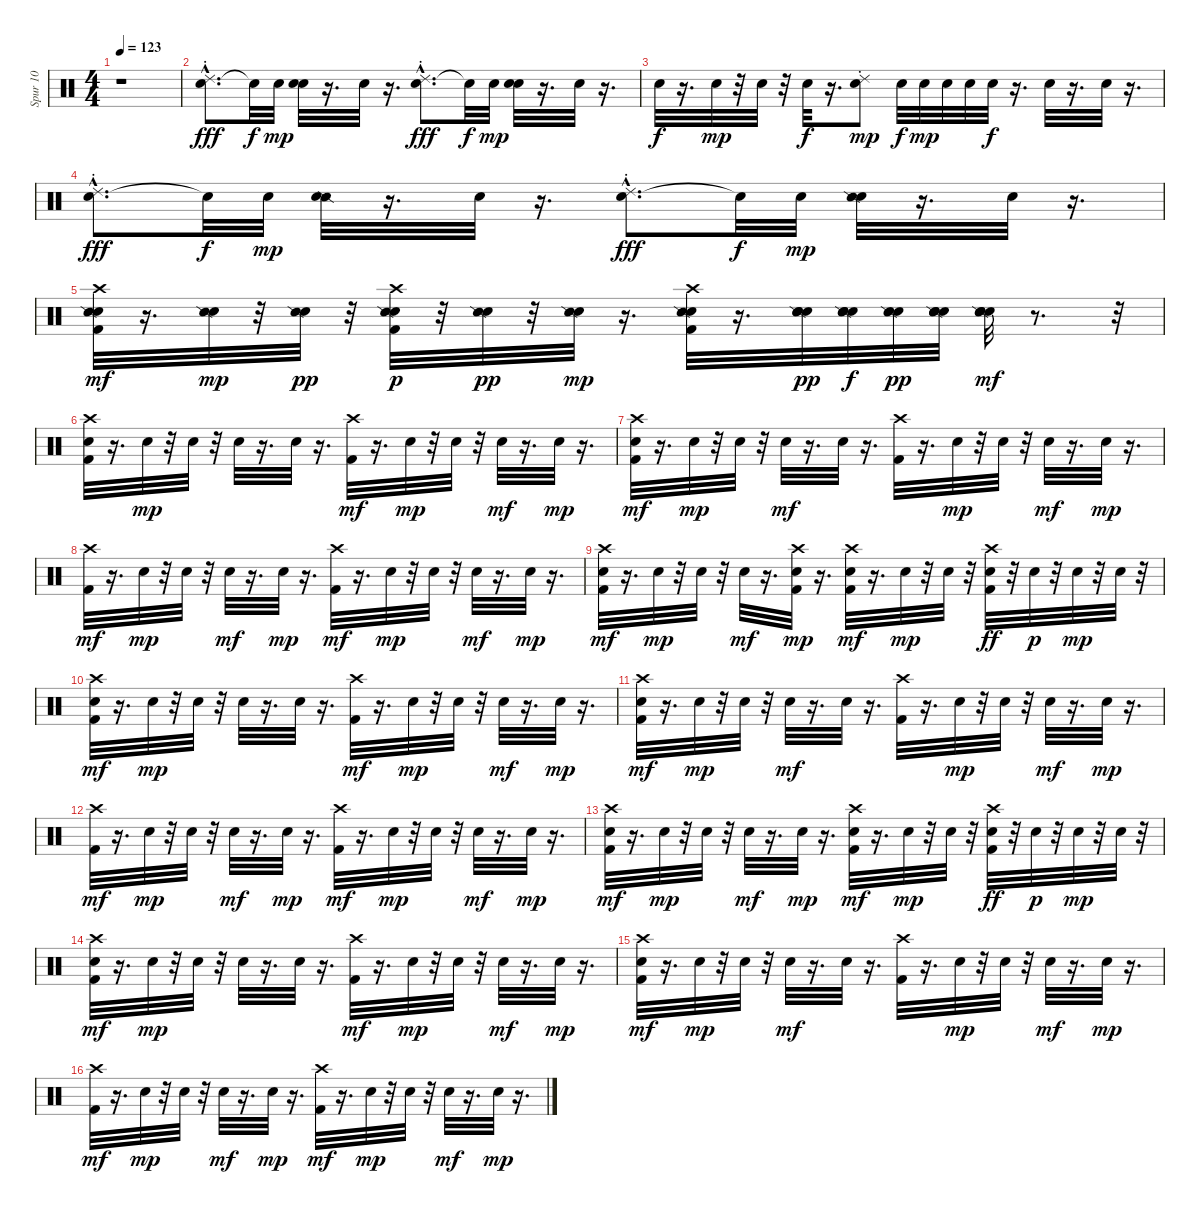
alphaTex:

\track ("Spur 10" "Spur 10") {instrument percussion}
\staff {score}
\articulation defaults
\ts (4 4)
\tempo 123
\clef neutral
\ks c
r.1{dy fff} |
("Snare (hit) 2" "Ride (choke) 2"{hac}).8{d} "Snare (hit)"{t}.32{dy f} "Snare (hit) 2".32{dy mp} ("Snare (hit) 2" "Snare (hit) 2").32 r.16{d} "Snare (hit) 2".32 r.16{d} ("Snare (hit) 2" "Ride (choke) 2"{hac}).8{d dy fff} "Snare (hit)"{t}.32{dy f} "Snare (hit) 2".32{dy mp} ("Snare (hit) 2" "Snare (hit) 2").32 r.16{d} "Snare (hit) 2".32 r.16{d} |
"Snare (hit) 2".32{dy f} r.16{d} "Snare (hit) 2".32{dy mp} r.32 "Snare (hit) 2".32 r.32 "Snare (hit) 2".32{dy f} r.16{d} ("Ride (choke) 2" "Snare (hit) 2").8{dy mp} "Snare (hit) 2".32{dy f} "Snare (hit) 2".32{dy mp} "Snare (hit) 2".32 "Snare (hit) 2".32 "Snare (hit) 2".32{dy f} r.16{d} "Snare (hit) 2".32 r.16{d} "Snare (hit) 2".32 r.16{d} |
("Snare (hit) 2" "Ride (choke) 2"{hac}).8{d dy fff} "Snare (hit)"{t}.32{dy f} "Snare (hit) 2".32{dy mp} ("Snare (side stick) 2" "Snare (hit) 2").32 r.16{d} "Snare (hit) 2".32 r.16{d} ("Snare (hit) 2" "Ride (choke) 2"{hac}).8{d dy fff} "Snare (hit)"{t}.32{dy f} "Snare (hit) 2".32{dy mp} ("Snare (hit) 2" "Snare (side stick) 2").32 r.16{d} "Snare (hit) 2".32 r.16{d} |
("Kick (hit) 2" "Crash high (hit)" "Snare (hit) 2" "Snare (side stick) 2").32{dy mf} r.16{d} ("Snare (hit) 2" "Snare (side stick) 2").32{dy mp} r.32 ("Snare (hit) 2" "Snare (side stick) 2").32{dy pp} r.32 ("Kick (hit) 2" "Crash high (hit)" "Snare (hit) 2" "Snare (side stick) 2").32{dy p} r.32 ("Snare (hit) 2" "Snare (side stick) 2").32{dy pp} r.32 ("Snare (hit) 2" "Snare (side stick) 2").32{dy mp} r.16{d} ("Kick (hit) 2" "Crash high (hit)" "Snare (hit) 2" "Snare (side stick) 2").32 r.16{d} ("Metronome (bell)" "Electric Snare (hit)" "Snare (hit) 2" "Snare (side stick) 2").32{dy pp} ("Electric Snare (hit)" "Snare (hit) 2" "Snare (side stick) 2" "Metronome (bell)").32{dy f} ("Electric Snare (hit)" "Snare (hit) 2" "Snare (side stick) 2").32{dy pp} ("Metronome (bell)" "Electric Snare (hit)" "Snare (hit) 2" "Snare (side stick) 2").32 ("Metronome (bell)" "Electric Snare (hit)" "Snare (hit) 2" "Snare (side stick) 2").32{dy mf} r.8{d} r.32 |
("Kick (hit) 2" "Crash high (hit)" "Snare (hit) 2").32 r.16{d} "Snare (hit) 2".32{dy mp} r.32 "Snare (hit) 2".32 r.32 "Snare (hit) 2".32 r.16{d} "Snare (hit) 2".32 r.16{d} ("Kick (hit) 2" "Crash high (hit)").32{dy mf} r.16{d} "Snare (hit) 2".32{dy mp} r.32 "Snare (hit) 2".32 r.32 "Snare (hit) 2".32{dy mf} r.16{d} "Snare (hit) 2".32{dy mp} r.16{d} |
("Kick (hit) 2" "Crash high (hit)" "Snare (hit) 2").32{dy mf} r.16{d} "Snare (hit) 2".32{dy mp} r.32 "Snare (hit) 2".32 r.32 "Snare (hit) 2".32{dy mf} r.16{d} "Snare (hit) 2".32 r.16{d} ("Kick (hit) 2" "Crash high (hit)").32 r.16{d} "Snare (hit) 2".32{dy mp} r.32 "Snare (hit) 2".32 r.32 "Snare (hit) 2".32{dy mf} r.16{d} "Snare (hit) 2".32{dy mp} r.16{d} |
("Kick (hit) 2" "Crash high (hit)").32{dy mf} r.16{d} "Snare (hit) 2".32{dy mp} r.32 "Snare (hit) 2".32 r.32 "Snare (hit) 2".32{dy mf} r.16{d} "Snare (hit) 2".32{dy mp} r.16{d} ("Kick (hit) 2" "Crash high (hit)").32{dy mf} r.16{d} "Snare (hit) 2".32{dy mp} r.32 "Snare (hit) 2".32 r.32 "Snare (hit) 2".32{dy mf} r.16{d} "Snare (hit) 2".32{dy mp} r.16{d} |
("Kick (hit) 2" "Crash high (hit)" "Snare (hit) 2").32{dy mf} r.16{d} "Snare (hit) 2".32{dy mp} r.32 "Snare (hit) 2".32 r.32 "Snare (hit) 2".32{dy mf} r.16{d} ("Snare (hit) 2" "Kick (hit) 2" "Crash high (hit)").32{dy mp} r.16{d} ("Kick (hit) 2" "Snare (hit) 2" "Crash high (hit)").32{dy mf} r.16{d} "Snare (hit) 2".32{dy mp} r.32 "Snare (hit) 2".32 r.32 ("Snare (hit) 2" "Kick (hit) 2" "Crash high (hit)").32{dy ff} r.32 "Snare (hit) 2".32{dy p} r.32 "Snare (hit) 2".32{dy mp} r.32 "Snare (hit) 2".32 r.32 |
("Kick (hit) 2" "Crash high (hit)" "Snare (hit) 2").32{dy mf} r.16{d} "Snare (hit) 2".32{dy mp} r.32 "Snare (hit) 2".32 r.32 "Snare (hit) 2".32 r.16{d} "Snare (hit) 2".32 r.16{d} ("Kick (hit) 2" "Crash high (hit)").32{dy mf} r.16{d} "Snare (hit) 2".32{dy mp} r.32 "Snare (hit) 2".32 r.32 "Snare (hit) 2".32{dy mf} r.16{d} "Snare (hit) 2".32{dy mp} r.16{d} |
("Kick (hit) 2" "Crash high (hit)" "Snare (hit) 2").32{dy mf} r.16{d} "Snare (hit) 2".32{dy mp} r.32 "Snare (hit) 2".32 r.32 "Snare (hit) 2".32{dy mf} r.16{d} "Snare (hit) 2".32 r.16{d} ("Kick (hit) 2" "Crash high (hit)").32 r.16{d} "Snare (hit) 2".32{dy mp} r.32 "Snare (hit) 2".32 r.32 "Snare (hit) 2".32{dy mf} r.16{d} "Snare (hit) 2".32{dy mp} r.16{d} |
("Kick (hit) 2" "Crash high (hit)").32{dy mf} r.16{d} "Snare (hit) 2".32{dy mp} r.32 "Snare (hit) 2".32 r.32 "Snare (hit) 2".32{dy mf} r.16{d} "Snare (hit) 2".32{dy mp} r.16{d} ("Kick (hit) 2" "Crash high (hit)").32{dy mf} r.16{d} "Snare (hit) 2".32{dy mp} r.32 "Snare (hit) 2".32 r.32 "Snare (hit) 2".32{dy mf} r.16{d} "Snare (hit) 2".32{dy mp} r.16{d} |
("Kick (hit) 2" "Crash high (hit)" "Snare (hit) 2").32{dy mf} r.16{d} "Snare (hit) 2".32{dy mp} r.32 "Snare (hit) 2".32 r.32 "Snare (hit) 2".32{dy mf} r.16{d} "Snare (hit) 2".32{dy mp} r.16{d} ("Kick (hit) 2" "Snare (hit) 2" "Crash high (hit)").32{dy mf} r.16{d} "Snare (hit) 2".32{dy mp} r.32 "Snare (hit) 2".32 r.32 ("Snare (hit) 2" "Kick (hit) 2" "Crash high (hit)").32{dy ff} r.32 "Snare (hit) 2".32{dy p} r.32 "Snare (hit) 2".32{dy mp} r.32 "Snare (hit) 2".32 r.32 |
("Kick (hit) 2" "Crash high (hit)" "Snare (hit) 2").32{dy mf} r.16{d} "Snare (hit) 2".32{dy mp} r.32 "Snare (hit) 2".32 r.32 "Snare (hit) 2".32 r.16{d} "Snare (hit) 2".32 r.16{d} ("Kick (hit) 2" "Crash high (hit)").32{dy mf} r.16{d} "Snare (hit) 2".32{dy mp} r.32 "Snare (hit) 2".32 r.32 "Snare (hit) 2".32{dy mf} r.16{d} "Snare (hit) 2".32{dy mp} r.16{d} |
("Kick (hit) 2" "Crash high (hit)" "Snare (hit) 2").32{dy mf} r.16{d} "Snare (hit) 2".32{dy mp} r.32 "Snare (hit) 2".32 r.32 "Snare (hit) 2".32{dy mf} r.16{d} "Snare (hit) 2".32 r.16{d} ("Kick (hit) 2" "Crash high (hit)").32 r.16{d} "Snare (hit) 2".32{dy mp} r.32 "Snare (hit) 2".32 r.32 "Snare (hit) 2".32{dy mf} r.16{d} "Snare (hit) 2".32{dy mp} r.16{d} |
("Kick (hit) 2" "Crash high (hit)").32{dy mf} r.16{d} "Snare (hit) 2".32{dy mp} r.32 "Snare (hit) 2".32 r.32 "Snare (hit) 2".32{dy mf} r.16{d} "Snare (hit) 2".32{dy mp} r.16{d} ("Kick (hit) 2" "Crash high (hit)").32{dy mf} r.16{d} "Snare (hit) 2".32{dy mp} r.32 "Snare (hit) 2".32 r.32 "Snare (hit) 2".32{dy mf} r.16{d} "Snare (hit) 2".32{dy mp} r.16{d}
